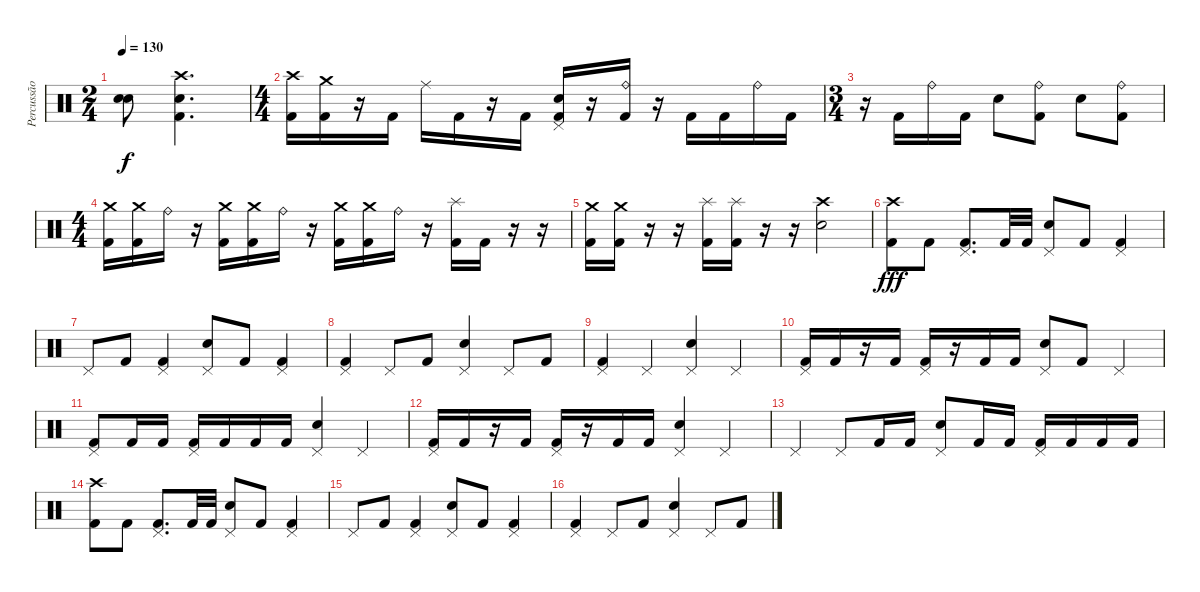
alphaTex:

\track ("Percussão" "Percussão") {instrument percussion}
\staff {score}
\articulation defaults
\ts (2 4)
\tempo 130
\clef neutral
\ks c
("Snare (hit)"{t} "Snare (hit)"{t}).8{dy f} ("Crash high (hit)" "Electric Snare (hit)" "Kick (hit) 2").4{d} |
\ts (4 4)
("Crash high (hit)" "Kick (hit) 2").16 ("Crash medium (hit)" "Kick (hit) 2").16 r.16 "Kick (hit) 2".16 "Ride (middle)".16 "Kick (hit) 2".16 r.16 "Kick (hit) 2".16 ("Pedal Hi-Hat (hit)" "Electric Snare (hit)" "Kick (hit) 2").16 r.16 ("Ride (bell)" "Kick (hit) 2").16 r.16 "Kick (hit) 2".16 "Kick (hit) 2".16 "Ride (bell)".16 "Kick (hit) 2".16 |
\ts (3 4)
r.16 "Kick (hit) 2".16 "Ride (bell)".16 "Kick (hit) 2".16 "Electric Snare (hit)".8 ("Ride (bell)" "Kick (hit) 2").8 "Electric Snare (hit)".8 ("Ride (bell)" "Kick (hit) 2").8 |
\ts (4 4)
("Crash medium (hit)" "Kick (hit) 2").16 ("Crash medium (hit)" "Kick (hit) 2").16 "Ride (bell)".16 r.16 ("Crash medium (hit)" "Kick (hit) 2").16 ("Crash medium (hit)" "Kick (hit) 2").16 "Ride (bell)".16 r.16 ("Crash medium (hit)" "Kick (hit) 2").16 ("Crash medium (hit)" "Kick (hit) 2").16 "Ride (bell)".16 r.16 ("Splash (hit)" "Kick (hit) 2").16 "Kick (hit) 2".16 r.16 r.16 |
("Crash medium (hit)" "Kick (hit) 2").16 ("Crash medium (hit)" "Kick (hit) 2").16 r.16 r.16 ("Splash (hit)" "Kick (hit) 2").16 ("Splash (hit)" "Kick (hit) 2").16 r.16 r.16 ("Crash high (hit)" "Electric Snare (hit)").2 |
("Crash high (hit)" "Kick (hit) 2").8{dy fff} "Kick (hit) 2".8 ("Pedal Hi-Hat (hit)" "Kick (hit) 2").8{d} "Kick (hit) 2".32 "Kick (hit) 2".32 ("Pedal Hi-Hat (hit)" "Electric Snare (hit)").8 "Kick (hit) 2".8 ("Pedal Hi-Hat (hit)" "Kick (hit) 2").4 |
"Pedal Hi-Hat (hit)".8 "Kick (hit) 2".8 ("Pedal Hi-Hat (hit)" "Kick (hit) 2").4 ("Pedal Hi-Hat (hit)" "Electric Snare (hit)").8 "Kick (hit) 2".8 ("Pedal Hi-Hat (hit)" "Kick (hit) 2").4 |
("Pedal Hi-Hat (hit)" "Kick (hit) 2").4 "Pedal Hi-Hat (hit)".8 "Kick (hit) 2".8 ("Pedal Hi-Hat (hit)" "Electric Snare (hit)").4 "Pedal Hi-Hat (hit)".8 "Kick (hit) 2".8 |
("Pedal Hi-Hat (hit)" "Kick (hit) 2").4 "Pedal Hi-Hat (hit)".4 ("Pedal Hi-Hat (hit)" "Electric Snare (hit)").4 "Pedal Hi-Hat (hit)".4 |
("Pedal Hi-Hat (hit)" "Kick (hit) 2").16 "Kick (hit) 2".16 r.16 "Kick (hit) 2".16 ("Pedal Hi-Hat (hit)" "Kick (hit) 2").16 r.16 "Kick (hit) 2".16 "Kick (hit) 2".16 ("Pedal Hi-Hat (hit)" "Electric Snare (hit)").8 "Kick (hit) 2".8 "Pedal Hi-Hat (hit)".4 |
("Pedal Hi-Hat (hit)" "Kick (hit) 2").8 "Kick (hit) 2".16 "Kick (hit) 2".16 ("Pedal Hi-Hat (hit)" "Kick (hit) 2").16 "Kick (hit) 2".16 "Kick (hit) 2".16 "Kick (hit) 2".16 ("Pedal Hi-Hat (hit)" "Electric Snare (hit)").4 "Pedal Hi-Hat (hit)".4 |
("Pedal Hi-Hat (hit)" "Kick (hit) 2").16 "Kick (hit) 2".16 r.16 "Kick (hit) 2".16 ("Pedal Hi-Hat (hit)" "Kick (hit) 2").16 r.16 "Kick (hit) 2".16 "Kick (hit) 2".16 ("Pedal Hi-Hat (hit)" "Electric Snare (hit)").4 "Pedal Hi-Hat (hit)".4 |
"Pedal Hi-Hat (hit)".4 "Pedal Hi-Hat (hit)".8 "Kick (hit) 2".16 "Kick (hit) 2".16 ("Pedal Hi-Hat (hit)" "Electric Snare (hit)").8 "Kick (hit) 2".16 "Kick (hit) 2".16 ("Pedal Hi-Hat (hit)" "Kick (hit) 2").16 "Kick (hit) 2".16 "Kick (hit) 2".16 "Kick (hit) 2".16 |
("Crash high (hit)" "Kick (hit) 2").8 "Kick (hit) 2".8 ("Pedal Hi-Hat (hit)" "Kick (hit) 2").8{d} "Kick (hit) 2".32 "Kick (hit) 2".32 ("Pedal Hi-Hat (hit)" "Electric Snare (hit)").8 "Kick (hit) 2".8 ("Pedal Hi-Hat (hit)" "Kick (hit) 2").4 |
"Pedal Hi-Hat (hit)".8 "Kick (hit) 2".8 ("Pedal Hi-Hat (hit)" "Kick (hit) 2").4 ("Pedal Hi-Hat (hit)" "Electric Snare (hit)").8 "Kick (hit) 2".8 ("Pedal Hi-Hat (hit)" "Kick (hit) 2").4 |
("Pedal Hi-Hat (hit)" "Kick (hit) 2").4 "Pedal Hi-Hat (hit)".8 "Kick (hit) 2".8 ("Pedal Hi-Hat (hit)" "Electric Snare (hit)").4 "Pedal Hi-Hat (hit)".8 "Kick (hit) 2".8
